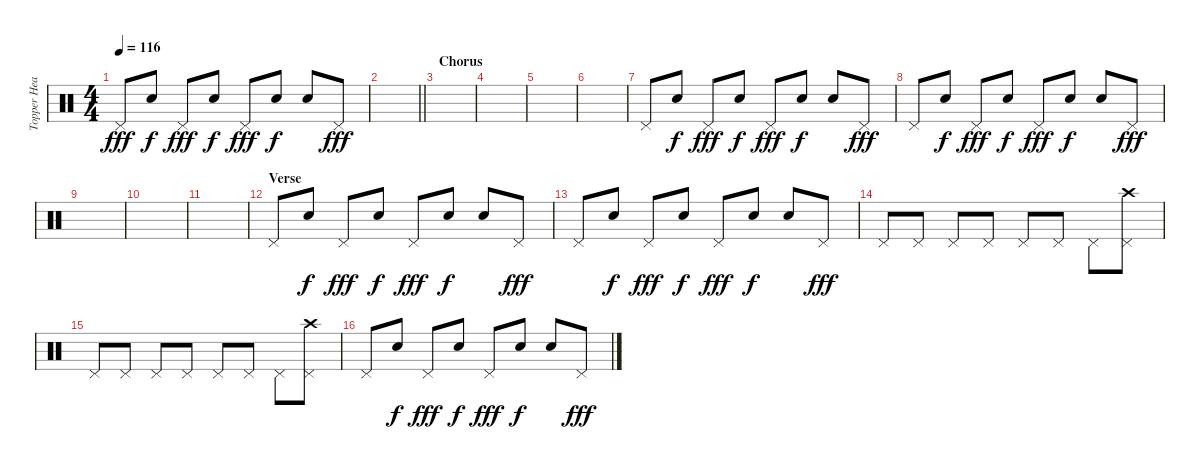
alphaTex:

\track ("Topper Headon - Percussion" "Topper Hea") {instrument percussion}
\staff {score}
\articulation defaults
\ts (4 4)
\tempo 116
\clef neutral
\ks c "Pedal Hi-Hat (hit)".8{dy fff} "Hand Clap (hit)".8{dy f} "Pedal Hi-Hat (hit)".8{dy fff} "Hand Clap (hit)".8{dy f} "Pedal Hi-Hat (hit)".8{dy fff} "Hand Clap (hit)".8{dy f} "Hand Clap (hit)".8 "Pedal Hi-Hat (hit)".8{dy fff}
|
\barLineRight lightlight
|
\section ("" "Chorus")
|
|
|
|
"Pedal Hi-Hat (hit)".8 "Hand Clap (hit)".8{dy f} "Pedal Hi-Hat (hit)".8{dy fff} "Hand Clap (hit)".8{dy f} "Pedal Hi-Hat (hit)".8{dy fff} "Hand Clap (hit)".8{dy f} "Hand Clap (hit)".8 "Pedal Hi-Hat (hit)".8{dy fff} |
"Pedal Hi-Hat (hit)".8 "Hand Clap (hit)".8{dy f} "Pedal Hi-Hat (hit)".8{dy fff} "Hand Clap (hit)".8{dy f} "Pedal Hi-Hat (hit)".8{dy fff} "Hand Clap (hit)".8{dy f} "Hand Clap (hit)".8 "Pedal Hi-Hat (hit)".8{dy fff} |
|
|
|
\section ("" "Verse")
"Pedal Hi-Hat (hit)".8 "Hand Clap (hit)".8{dy f} "Pedal Hi-Hat (hit)".8{dy fff} "Hand Clap (hit)".8{dy f} "Pedal Hi-Hat (hit)".8{dy fff} "Hand Clap (hit)".8{dy f} "Hand Clap (hit)".8 "Pedal Hi-Hat (hit)".8{dy fff} |
"Pedal Hi-Hat (hit)".8 "Hand Clap (hit)".8{dy f} "Pedal Hi-Hat (hit)".8{dy fff} "Hand Clap (hit)".8{dy f} "Pedal Hi-Hat (hit)".8{dy fff} "Hand Clap (hit)".8{dy f} "Hand Clap (hit)".8 "Pedal Hi-Hat (hit)".8{dy fff} |
"Pedal Hi-Hat (hit)".8 "Pedal Hi-Hat (hit)".8 "Pedal Hi-Hat (hit)".8 "Pedal Hi-Hat (hit)".8 "Pedal Hi-Hat (hit)".8 "Pedal Hi-Hat (hit)".8 "Pedal Hi-Hat (hit)".8 ("Crash high (hit)" "Pedal Hi-Hat (hit)").8 |
"Pedal Hi-Hat (hit)".8 "Pedal Hi-Hat (hit)".8 "Pedal Hi-Hat (hit)".8 "Pedal Hi-Hat (hit)".8 "Pedal Hi-Hat (hit)".8 "Pedal Hi-Hat (hit)".8 "Pedal Hi-Hat (hit)".8 ("Crash high (hit)" "Pedal Hi-Hat (hit)").8 |
"Pedal Hi-Hat (hit)".8 "Hand Clap (hit)".8{dy f} "Pedal Hi-Hat (hit)".8{dy fff} "Hand Clap (hit)".8{dy f} "Pedal Hi-Hat (hit)".8{dy fff} "Hand Clap (hit)".8{dy f} "Hand Clap (hit)".8 "Pedal Hi-Hat (hit)".8{dy fff}
